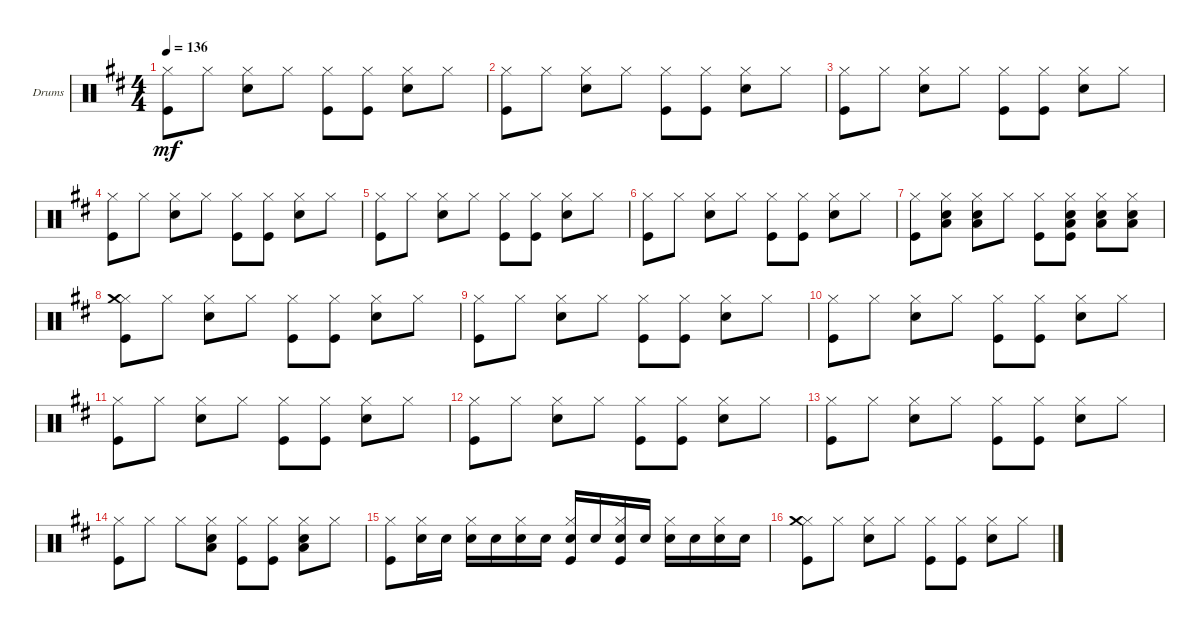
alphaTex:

\defaultSystemsLayout 4
\bracketExtendMode groupsimilarinstruments
\firstSystemTrackNameOrientation horizontal
\otherSystemsTrackNameOrientation horizontal
\track ("Greg Bissonette Drums" "Drums") {instrument percussion}
\staff {score}
\articulation defaults
\ts (4 4)
\tempo 136
\clef neutral
\ks d
("Kick (hit)" "Hi-Hat (closed)").8{dy mf} "Hi-Hat (closed)".8 ("Snare (hit) 2" "Hi-Hat (closed)").8 "Hi-Hat (closed)".8 ("Kick (hit)" "Hi-Hat (closed)").8 ("Kick (hit)" "Hi-Hat (closed)").8 ("Snare (hit) 2" "Hi-Hat (closed)").8 "Hi-Hat (closed)".8 |
("Kick (hit)" "Hi-Hat (closed)").8 "Hi-Hat (closed)".8 ("Snare (hit) 2" "Hi-Hat (closed)").8 "Hi-Hat (closed)".8 ("Kick (hit)" "Hi-Hat (closed)").8 ("Kick (hit)" "Hi-Hat (closed)").8 ("Snare (hit) 2" "Hi-Hat (closed)").8 "Hi-Hat (closed)".8 |
("Kick (hit)" "Hi-Hat (closed)").8 "Hi-Hat (closed)".8 ("Snare (hit) 2" "Hi-Hat (closed)").8 "Hi-Hat (closed)".8 ("Kick (hit)" "Hi-Hat (closed)").8 ("Kick (hit)" "Hi-Hat (closed)").8 ("Snare (hit) 2" "Hi-Hat (closed)").8 "Hi-Hat (closed)".8 |
("Kick (hit)" "Hi-Hat (closed)").8 "Hi-Hat (closed)".8 ("Snare (hit) 2" "Hi-Hat (closed)").8 "Hi-Hat (closed)".8 ("Kick (hit)" "Hi-Hat (closed)").8 ("Kick (hit)" "Hi-Hat (closed)").8 ("Snare (hit) 2" "Hi-Hat (closed)").8 "Hi-Hat (closed)".8 |
("Kick (hit)" "Hi-Hat (closed)").8 "Hi-Hat (closed)".8 ("Snare (hit) 2" "Hi-Hat (closed)").8 "Hi-Hat (closed)".8 ("Kick (hit)" "Hi-Hat (closed)").8 ("Kick (hit)" "Hi-Hat (closed)").8 ("Snare (hit) 2" "Hi-Hat (closed)").8 "Hi-Hat (closed)".8 |
("Kick (hit)" "Hi-Hat (closed)").8 "Hi-Hat (closed)".8 ("Snare (hit) 2" "Hi-Hat (closed)").8 "Hi-Hat (closed)".8 ("Kick (hit)" "Hi-Hat (closed)").8 ("Kick (hit)" "Hi-Hat (closed)").8 ("Snare (hit) 2" "Hi-Hat (closed)").8 "Hi-Hat (closed)".8 |
("Kick (hit)" "Hi-Hat (closed)").8 ("Snare (hit) 2" "Hi-Hat (closed)" "Low Tom (hit)").8 ("Snare (hit) 2" "Hi-Hat (closed)" "Low Tom (hit)").8 "Hi-Hat (closed)".8 ("Kick (hit)" "Hi-Hat (closed)").8 ("Kick (hit)" "Snare (hit) 2" "Hi-Hat (closed)" "Low Tom (hit)").8 ("Snare (hit) 2" "Hi-Hat (closed)" "Low Tom (hit)").8 ("Snare (hit) 2" "Hi-Hat (closed)" "Low Tom (hit)").8 |
("Kick (hit)" "Hi-Hat (closed)" "Crash medium (hit)").8 "Hi-Hat (closed)".8 ("Snare (hit) 2" "Hi-Hat (closed)").8 "Hi-Hat (closed)".8 ("Kick (hit)" "Hi-Hat (closed)").8 ("Kick (hit)" "Hi-Hat (closed)").8 ("Snare (hit) 2" "Hi-Hat (closed)").8 "Hi-Hat (closed)".8 |
("Kick (hit)" "Hi-Hat (closed)").8 "Hi-Hat (closed)".8 ("Snare (hit) 2" "Hi-Hat (closed)").8 "Hi-Hat (closed)".8 ("Kick (hit)" "Hi-Hat (closed)").8 ("Kick (hit)" "Hi-Hat (closed)").8 ("Snare (hit) 2" "Hi-Hat (closed)").8 "Hi-Hat (closed)".8 |
("Kick (hit)" "Hi-Hat (closed)").8 "Hi-Hat (closed)".8 ("Snare (hit) 2" "Hi-Hat (closed)").8 "Hi-Hat (closed)".8 ("Kick (hit)" "Hi-Hat (closed)").8 ("Kick (hit)" "Hi-Hat (closed)").8 ("Snare (hit) 2" "Hi-Hat (closed)").8 "Hi-Hat (closed)".8 |
("Kick (hit)" "Hi-Hat (closed)").8 "Hi-Hat (closed)".8 ("Snare (hit) 2" "Hi-Hat (closed)").8 "Hi-Hat (closed)".8 ("Kick (hit)" "Hi-Hat (closed)").8 ("Kick (hit)" "Hi-Hat (closed)").8 ("Snare (hit) 2" "Hi-Hat (closed)").8 "Hi-Hat (closed)".8 |
("Kick (hit)" "Hi-Hat (closed)").8 "Hi-Hat (closed)".8 ("Snare (hit) 2" "Hi-Hat (closed)").8 "Hi-Hat (closed)".8 ("Kick (hit)" "Hi-Hat (closed)").8 ("Kick (hit)" "Hi-Hat (closed)").8 ("Snare (hit) 2" "Hi-Hat (closed)").8 "Hi-Hat (closed)".8 |
("Kick (hit)" "Hi-Hat (closed)").8 "Hi-Hat (closed)".8 ("Snare (hit) 2" "Hi-Hat (closed)").8 "Hi-Hat (closed)".8 ("Kick (hit)" "Hi-Hat (closed)").8 ("Kick (hit)" "Hi-Hat (closed)").8 ("Snare (hit) 2" "Hi-Hat (closed)").8 "Hi-Hat (closed)".8 |
("Kick (hit)" "Hi-Hat (closed)").8 "Hi-Hat (closed)".8 "Hi-Hat (closed)".8 ("Snare (hit) 2" "Hi-Hat (closed)" "Low Tom (hit)").8 ("Kick (hit)" "Hi-Hat (closed)").8 ("Kick (hit)" "Hi-Hat (closed)").8 ("Snare (hit) 2" "Hi-Hat (closed)" "Low Tom (hit)").8 "Hi-Hat (closed)".8 |
("Kick (hit)" "Hi-Hat (closed)").8 ("Snare (hit) 2" "Hi-Hat (closed)").16 "Snare (hit) 2".16 ("Snare (hit) 2" "Hi-Hat (closed)").16 "Snare (hit) 2".16 ("Snare (hit) 2" "Hi-Hat (closed)").16 "Snare (hit) 2".16 ("Kick (hit)" "Snare (hit) 2" "Hi-Hat (closed)").16 "Snare (hit) 2".16 ("Kick (hit)" "Snare (hit) 2" "Hi-Hat (closed)").16 "Snare (hit) 2".16 ("Snare (hit) 2" "Hi-Hat (closed)").16 "Snare (hit) 2".16 ("Snare (hit) 2" "Hi-Hat (closed)").16 "Snare (hit) 2".16 |
("Kick (hit)" "Hi-Hat (closed)" "Crash medium (hit)").8 "Hi-Hat (closed)".8 ("Snare (hit) 2" "Hi-Hat (closed)").8 "Hi-Hat (closed)".8 ("Kick (hit)" "Hi-Hat (closed)").8 ("Kick (hit)" "Hi-Hat (closed)").8 ("Snare (hit) 2" "Hi-Hat (closed)").8 "Hi-Hat (closed)".8
